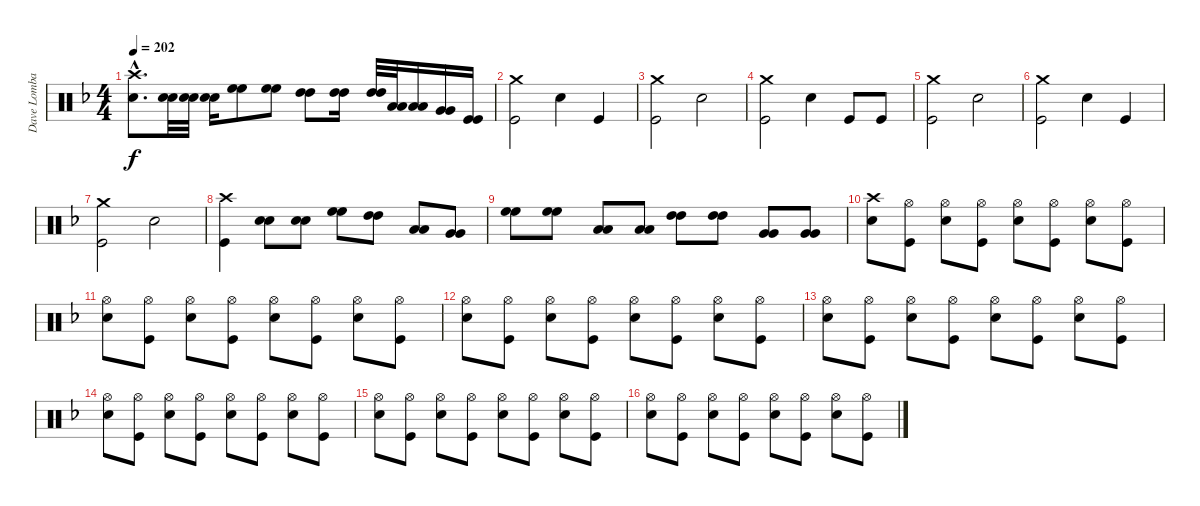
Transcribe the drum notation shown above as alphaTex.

\track ("Dave Lombardo - Drums" "Dave Lomba") {instrument percussion}
\staff {score}
\articulation defaults
\ts (4 4)
\tempo 202
\clef neutral
\ks f
("Crash high (hit)"{hac} "Snare (hit) 2"{hac}).8{d dy f} ("Snare (hit) 2" "Snare (hit) 2").32 ("Snare (hit) 2" "Snare (hit) 2").32 ("Snare (hit) 2" "Snare (hit) 2").16 ("High Floor Tom (hit)" "High Floor Tom (hit)").8 ("High Floor Tom (hit)" "High Floor Tom (hit)").8 ("High Tom (hit)" "High Tom (hit)").8 ("High Tom (hit)" "High Tom (hit)").16 ("High Tom (hit)" "High Tom (hit)").32 ("Low Tom (hit)" "Low Tom (hit)").32 ("Low Tom (hit)" "Low Tom (hit)").16 ("Very Low Tom (hit)" "Very Low Tom (hit)").16 ("Kick (hit)" "Kick (hit)").16 |
("Crash medium (hit)" "Kick (hit)").2 "Snare (hit) 2".4 "Kick (hit)".4 |
("Crash medium (hit)" "Kick (hit)").2 "Snare (hit) 2".2 |
("Crash medium (hit)" "Kick (hit)").2 "Snare (hit) 2".4 "Kick (hit)".8 "Kick (hit)".8 |
("Crash medium (hit)" "Kick (hit)").2 "Snare (hit) 2".2 |
("Crash medium (hit)" "Kick (hit)").2 "Snare (hit) 2".4 "Kick (hit)".4 |
("Crash medium (hit)" "Kick (hit)").2 "Snare (hit) 2".2 |
("Crash high (hit)" "Kick (hit)").4 ("Snare (hit) 2" "Snare (hit) 2").8 ("Snare (hit) 2" "Snare (hit) 2").8 ("High Floor Tom (hit)" "High Floor Tom (hit)").8 ("High Tom (hit)" "High Tom (hit)").8 ("Low Tom (hit)" "Low Tom (hit)").8 ("Very Low Tom (hit)" "Very Low Tom (hit)").8 |
("High Floor Tom (hit)" "High Floor Tom (hit)").8 ("High Floor Tom (hit)" "High Floor Tom (hit)").8 ("Low Tom (hit)" "Low Tom (hit)").8 ("Low Tom (hit)" "Low Tom (hit)").8 ("High Tom (hit)" "High Tom (hit)").8 ("High Tom (hit)" "High Tom (hit)").8 ("Very Low Tom (hit)" "Very Low Tom (hit)").8 ("Very Low Tom (hit)" "Very Low Tom (hit)").8 |
("Crash high (hit)" "Snare (hit) 2").8 ("Hi-Hat (open)" "Kick (hit)").8 ("Hi-Hat (open)" "Snare (hit) 2").8 ("Hi-Hat (open)" "Kick (hit)").8 ("Hi-Hat (open)" "Snare (hit) 2").8 ("Hi-Hat (open)" "Kick (hit)").8 ("Hi-Hat (open)" "Snare (hit) 2").8 ("Hi-Hat (open)" "Kick (hit)").8 |
("Hi-Hat (open)" "Snare (hit) 2").8 ("Hi-Hat (open)" "Kick (hit)").8 ("Hi-Hat (open)" "Snare (hit) 2").8 ("Hi-Hat (open)" "Kick (hit)").8 ("Hi-Hat (open)" "Snare (hit) 2").8 ("Hi-Hat (open)" "Kick (hit)").8 ("Hi-Hat (open)" "Snare (hit) 2").8 ("Hi-Hat (open)" "Kick (hit)").8 |
("Hi-Hat (open)" "Snare (hit) 2").8 ("Hi-Hat (open)" "Kick (hit)").8 ("Hi-Hat (open)" "Snare (hit) 2").8 ("Hi-Hat (open)" "Kick (hit)").8 ("Hi-Hat (open)" "Snare (hit) 2").8 ("Hi-Hat (open)" "Kick (hit)").8 ("Hi-Hat (open)" "Snare (hit) 2").8 ("Hi-Hat (open)" "Kick (hit)").8 |
("Hi-Hat (open)" "Snare (hit) 2").8 ("Hi-Hat (open)" "Kick (hit)").8 ("Hi-Hat (open)" "Snare (hit) 2").8 ("Hi-Hat (open)" "Kick (hit)").8 ("Hi-Hat (open)" "Snare (hit) 2").8 ("Hi-Hat (open)" "Kick (hit)").8 ("Hi-Hat (open)" "Snare (hit) 2").8 ("Hi-Hat (open)" "Kick (hit)").8 |
("Hi-Hat (open)" "Snare (hit) 2").8 ("Hi-Hat (open)" "Kick (hit)").8 ("Hi-Hat (open)" "Snare (hit) 2").8 ("Hi-Hat (open)" "Kick (hit)").8 ("Hi-Hat (open)" "Snare (hit) 2").8 ("Hi-Hat (open)" "Kick (hit)").8 ("Hi-Hat (open)" "Snare (hit) 2").8 ("Hi-Hat (open)" "Kick (hit)").8 |
("Hi-Hat (open)" "Snare (hit) 2").8 ("Hi-Hat (open)" "Kick (hit)").8 ("Hi-Hat (open)" "Snare (hit) 2").8 ("Hi-Hat (open)" "Kick (hit)").8 ("Hi-Hat (open)" "Snare (hit) 2").8 ("Hi-Hat (open)" "Kick (hit)").8 ("Hi-Hat (open)" "Snare (hit) 2").8 ("Hi-Hat (open)" "Kick (hit)").8 |
("Hi-Hat (open)" "Snare (hit) 2").8 ("Hi-Hat (open)" "Kick (hit)").8 ("Hi-Hat (open)" "Snare (hit) 2").8 ("Hi-Hat (open)" "Kick (hit)").8 ("Hi-Hat (open)" "Snare (hit) 2").8 ("Hi-Hat (open)" "Kick (hit)").8 ("Hi-Hat (open)" "Snare (hit) 2").8 ("Hi-Hat (open)" "Kick (hit)").8
